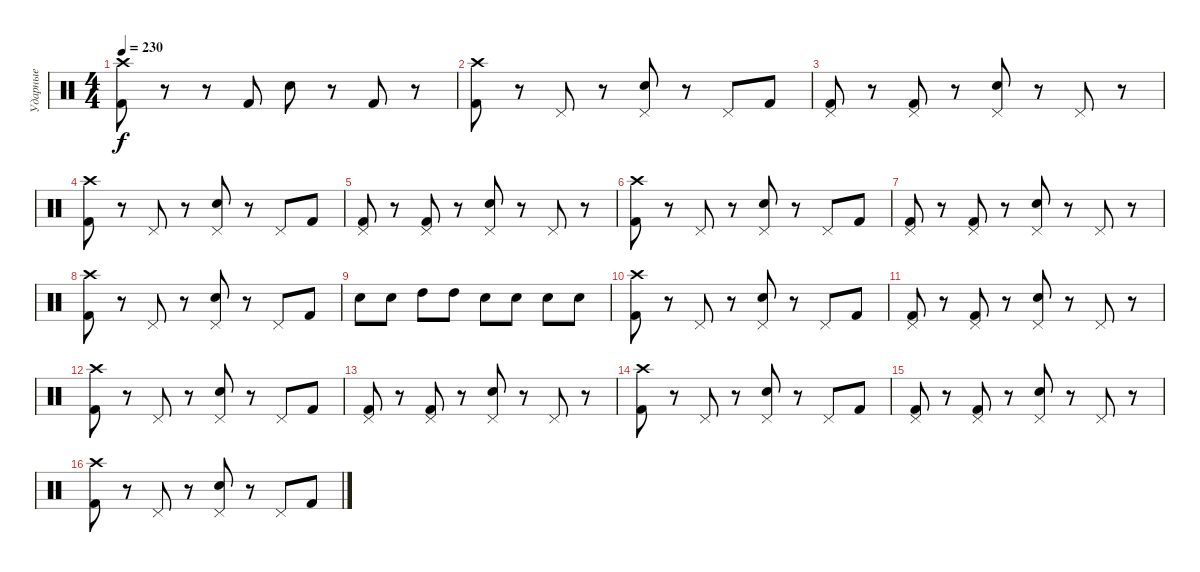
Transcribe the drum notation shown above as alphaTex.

\track ("Ударные" "Ударные") {instrument percussion}
\staff
\articulation defaults
\ts (4 4)
\tempo 230
\clef neutral
\ks c
("Crash high (hit)" "Kick (hit) 2").8{dy f} r.8 r.8 "Kick (hit) 2".8 "Electric Snare (hit)".8 r.8 "Kick (hit) 2".8 r.8 |
("Crash high (hit)" "Kick (hit) 2").8 r.8 "Pedal Hi-Hat (hit)".8 r.8 ("Pedal Hi-Hat (hit)" "Electric Snare (hit)").8 r.8 "Pedal Hi-Hat (hit)".8 "Kick (hit) 2".8 |
("Pedal Hi-Hat (hit)" "Kick (hit) 2").8 r.8 ("Pedal Hi-Hat (hit)" "Kick (hit) 2").8 r.8 ("Pedal Hi-Hat (hit)" "Electric Snare (hit)").8 r.8 "Pedal Hi-Hat (hit)".8 r.8 |
("Crash high (hit)" "Kick (hit) 2").8 r.8 "Pedal Hi-Hat (hit)".8 r.8 ("Pedal Hi-Hat (hit)" "Electric Snare (hit)").8 r.8 "Pedal Hi-Hat (hit)".8 "Kick (hit) 2".8 |
("Pedal Hi-Hat (hit)" "Kick (hit) 2").8 r.8 ("Pedal Hi-Hat (hit)" "Kick (hit) 2").8 r.8 ("Pedal Hi-Hat (hit)" "Electric Snare (hit)").8 r.8 "Pedal Hi-Hat (hit)".8 r.8 |
("Crash high (hit)" "Kick (hit) 2").8 r.8 "Pedal Hi-Hat (hit)".8 r.8 ("Pedal Hi-Hat (hit)" "Electric Snare (hit)").8 r.8 "Pedal Hi-Hat (hit)".8 "Kick (hit) 2".8 |
("Pedal Hi-Hat (hit)" "Kick (hit) 2").8 r.8 ("Pedal Hi-Hat (hit)" "Kick (hit) 2").8 r.8 ("Pedal Hi-Hat (hit)" "Electric Snare (hit)").8 r.8 "Pedal Hi-Hat (hit)".8 r.8 |
("Crash high (hit)" "Kick (hit) 2").8 r.8 "Pedal Hi-Hat (hit)".8 r.8 ("Pedal Hi-Hat (hit)" "Electric Snare (hit)").8 r.8 "Pedal Hi-Hat (hit)".8 "Kick (hit) 2".8 |
"Electric Snare (hit)".8 "Electric Snare (hit)".8 "High Tom (hit)".8 "High Tom (hit)".8 "Electric Snare (hit)".8 "Electric Snare (hit)".8 "Electric Snare (hit)".8 "Electric Snare (hit)".8 |
("Crash high (hit)" "Kick (hit) 2").8 r.8 "Pedal Hi-Hat (hit)".8 r.8 ("Pedal Hi-Hat (hit)" "Electric Snare (hit)").8 r.8 "Pedal Hi-Hat (hit)".8 "Kick (hit) 2".8 |
("Pedal Hi-Hat (hit)" "Kick (hit) 2").8 r.8 ("Pedal Hi-Hat (hit)" "Kick (hit) 2").8 r.8 ("Pedal Hi-Hat (hit)" "Electric Snare (hit)").8 r.8 "Pedal Hi-Hat (hit)".8 r.8 |
("Crash high (hit)" "Kick (hit) 2").8 r.8 "Pedal Hi-Hat (hit)".8 r.8 ("Pedal Hi-Hat (hit)" "Electric Snare (hit)").8 r.8 "Pedal Hi-Hat (hit)".8 "Kick (hit) 2".8 |
("Pedal Hi-Hat (hit)" "Kick (hit) 2").8 r.8 ("Pedal Hi-Hat (hit)" "Kick (hit) 2").8 r.8 ("Pedal Hi-Hat (hit)" "Electric Snare (hit)").8 r.8 "Pedal Hi-Hat (hit)".8 r.8 |
("Crash high (hit)" "Kick (hit) 2").8 r.8 "Pedal Hi-Hat (hit)".8 r.8 ("Pedal Hi-Hat (hit)" "Electric Snare (hit)").8 r.8 "Pedal Hi-Hat (hit)".8 "Kick (hit) 2".8 |
("Pedal Hi-Hat (hit)" "Kick (hit) 2").8 r.8 ("Pedal Hi-Hat (hit)" "Kick (hit) 2").8 r.8 ("Pedal Hi-Hat (hit)" "Electric Snare (hit)").8 r.8 "Pedal Hi-Hat (hit)".8 r.8 |
("Crash high (hit)" "Kick (hit) 2").8 r.8 "Pedal Hi-Hat (hit)".8 r.8 ("Pedal Hi-Hat (hit)" "Electric Snare (hit)").8 r.8 "Pedal Hi-Hat (hit)".8 "Kick (hit) 2".8
